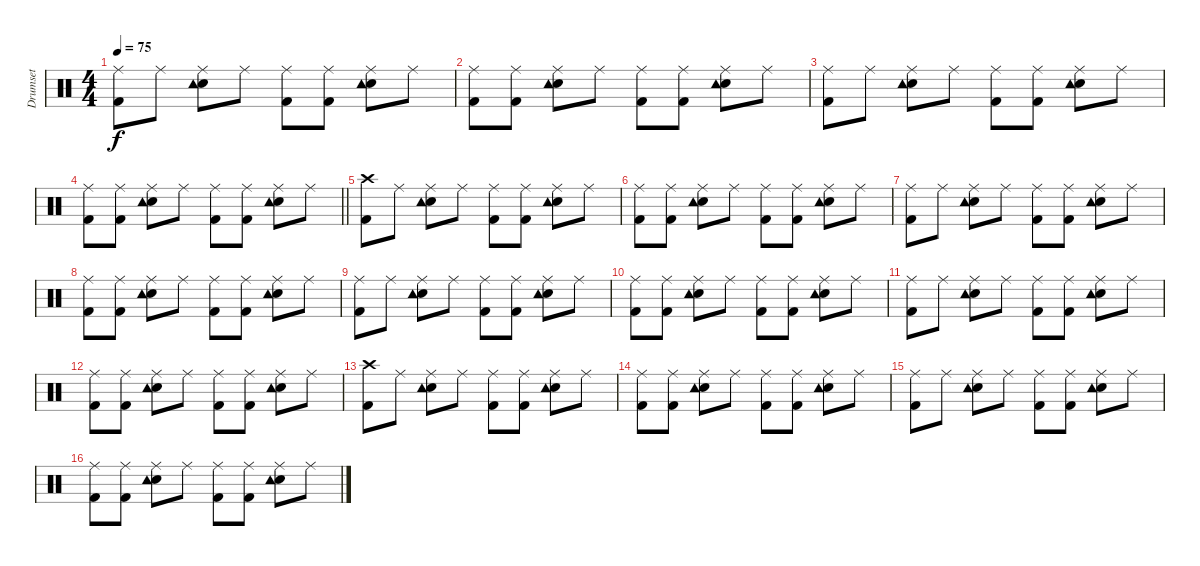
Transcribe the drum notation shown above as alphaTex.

\track ("Drumset" "Drumset") {instrument percussion}
\staff {score}
\articulation defaults
\ts (4 4)
\tempo 75
\clef neutral
\ks c
("Ride (middle)" "Kick (hit) 2").8{dy f} "Ride (middle)".8 ("Ride (middle)" "Electric Snare (hit)" "Tambourine (hit)").8 "Ride (middle)".8 ("Ride (middle)" "Kick (hit) 2").8 ("Ride (middle)" "Kick (hit) 2").8 ("Ride (middle)" "Electric Snare (hit)" "Tambourine (hit)").8 "Ride (middle)".8 |
("Ride (middle)" "Kick (hit) 2").8 ("Ride (middle)" "Kick (hit) 2").8 ("Ride (middle)" "Electric Snare (hit)" "Tambourine (hit)").8 "Ride (middle)".8 ("Ride (middle)" "Kick (hit) 2").8 ("Ride (middle)" "Kick (hit) 2").8 ("Ride (middle)" "Electric Snare (hit)" "Tambourine (hit)").8 "Ride (middle)".8 |
("Ride (middle)" "Kick (hit) 2").8 "Ride (middle)".8 ("Ride (middle)" "Electric Snare (hit)" "Tambourine (hit)").8 "Ride (middle)".8 ("Ride (middle)" "Kick (hit) 2").8 ("Ride (middle)" "Kick (hit) 2").8 ("Ride (middle)" "Electric Snare (hit)" "Tambourine (hit)").8 "Ride (middle)".8 |
\barLineRight lightlight
("Ride (middle)" "Kick (hit) 2").8 ("Ride (middle)" "Kick (hit) 2").8 ("Ride (middle)" "Electric Snare (hit)" "Tambourine (hit)").8 "Ride (middle)".8 ("Ride (middle)" "Kick (hit) 2").8 ("Ride (middle)" "Kick (hit) 2").8 ("Ride (middle)" "Electric Snare (hit)" "Tambourine (hit)").8 "Ride (middle)".8 |
("Crash high (hit)" "Kick (hit) 2").8 "Ride (middle)".8 ("Ride (middle)" "Electric Snare (hit)" "Tambourine (hit)").8 "Ride (middle)".8 ("Ride (middle)" "Kick (hit) 2").8 ("Ride (middle)" "Kick (hit) 2").8 ("Ride (middle)" "Electric Snare (hit)" "Tambourine (hit)").8 "Ride (middle)".8 |
("Ride (middle)" "Kick (hit) 2").8 ("Ride (middle)" "Kick (hit) 2").8 ("Ride (middle)" "Electric Snare (hit)" "Tambourine (hit)").8 "Ride (middle)".8 ("Ride (middle)" "Kick (hit) 2").8 ("Ride (middle)" "Kick (hit) 2").8 ("Ride (middle)" "Electric Snare (hit)" "Tambourine (hit)").8 "Ride (middle)".8 |
("Ride (middle)" "Kick (hit) 2").8 "Ride (middle)".8 ("Ride (middle)" "Electric Snare (hit)" "Tambourine (hit)").8 "Ride (middle)".8 ("Ride (middle)" "Kick (hit) 2").8 ("Ride (middle)" "Kick (hit) 2").8 ("Ride (middle)" "Electric Snare (hit)" "Tambourine (hit)").8 "Ride (middle)".8 |
("Ride (middle)" "Kick (hit) 2").8 ("Ride (middle)" "Kick (hit) 2").8 ("Ride (middle)" "Electric Snare (hit)" "Tambourine (hit)").8 "Ride (middle)".8 ("Ride (middle)" "Kick (hit) 2").8 ("Ride (middle)" "Kick (hit) 2").8 ("Ride (middle)" "Electric Snare (hit)" "Tambourine (hit)").8 "Ride (middle)".8 |
("Ride (middle)" "Kick (hit) 2").8 "Ride (middle)".8 ("Ride (middle)" "Electric Snare (hit)" "Tambourine (hit)").8 "Ride (middle)".8 ("Ride (middle)" "Kick (hit) 2").8 ("Ride (middle)" "Kick (hit) 2").8 ("Ride (middle)" "Electric Snare (hit)" "Tambourine (hit)").8 "Ride (middle)".8 |
("Ride (middle)" "Kick (hit) 2").8 ("Ride (middle)" "Kick (hit) 2").8 ("Ride (middle)" "Electric Snare (hit)" "Tambourine (hit)").8 "Ride (middle)".8 ("Ride (middle)" "Kick (hit) 2").8 ("Ride (middle)" "Kick (hit) 2").8 ("Ride (middle)" "Electric Snare (hit)" "Tambourine (hit)").8 "Ride (middle)".8 |
("Ride (middle)" "Kick (hit) 2").8 "Ride (middle)".8 ("Ride (middle)" "Electric Snare (hit)" "Tambourine (hit)").8 "Ride (middle)".8 ("Ride (middle)" "Kick (hit) 2").8 ("Ride (middle)" "Kick (hit) 2").8 ("Ride (middle)" "Electric Snare (hit)" "Tambourine (hit)").8 "Ride (middle)".8 |
("Ride (middle)" "Kick (hit) 2").8 ("Ride (middle)" "Kick (hit) 2").8 ("Ride (middle)" "Electric Snare (hit)" "Tambourine (hit)").8 "Ride (middle)".8 ("Ride (middle)" "Kick (hit) 2").8 ("Ride (middle)" "Kick (hit) 2").8 ("Ride (middle)" "Electric Snare (hit)" "Tambourine (hit)").8 "Ride (middle)".8 |
("Crash high (hit)" "Kick (hit) 2").8 "Ride (middle)".8 ("Ride (middle)" "Electric Snare (hit)" "Tambourine (hit)").8 "Ride (middle)".8 ("Ride (middle)" "Kick (hit) 2").8 ("Ride (middle)" "Kick (hit) 2").8 ("Ride (middle)" "Electric Snare (hit)" "Tambourine (hit)").8 "Ride (middle)".8 |
("Ride (middle)" "Kick (hit) 2").8 ("Ride (middle)" "Kick (hit) 2").8 ("Ride (middle)" "Electric Snare (hit)" "Tambourine (hit)").8 "Ride (middle)".8 ("Ride (middle)" "Kick (hit) 2").8 ("Ride (middle)" "Kick (hit) 2").8 ("Ride (middle)" "Electric Snare (hit)" "Tambourine (hit)").8 "Ride (middle)".8 |
("Ride (middle)" "Kick (hit) 2").8 "Ride (middle)".8 ("Ride (middle)" "Electric Snare (hit)" "Tambourine (hit)").8 "Ride (middle)".8 ("Ride (middle)" "Kick (hit) 2").8 ("Ride (middle)" "Kick (hit) 2").8 ("Ride (middle)" "Electric Snare (hit)" "Tambourine (hit)").8 "Ride (middle)".8 |
("Ride (middle)" "Kick (hit) 2").8 ("Ride (middle)" "Kick (hit) 2").8 ("Ride (middle)" "Electric Snare (hit)" "Tambourine (hit)").8 "Ride (middle)".8 ("Ride (middle)" "Kick (hit) 2").8 ("Ride (middle)" "Kick (hit) 2").8 ("Ride (middle)" "Electric Snare (hit)" "Tambourine (hit)").8 "Ride (middle)".8
